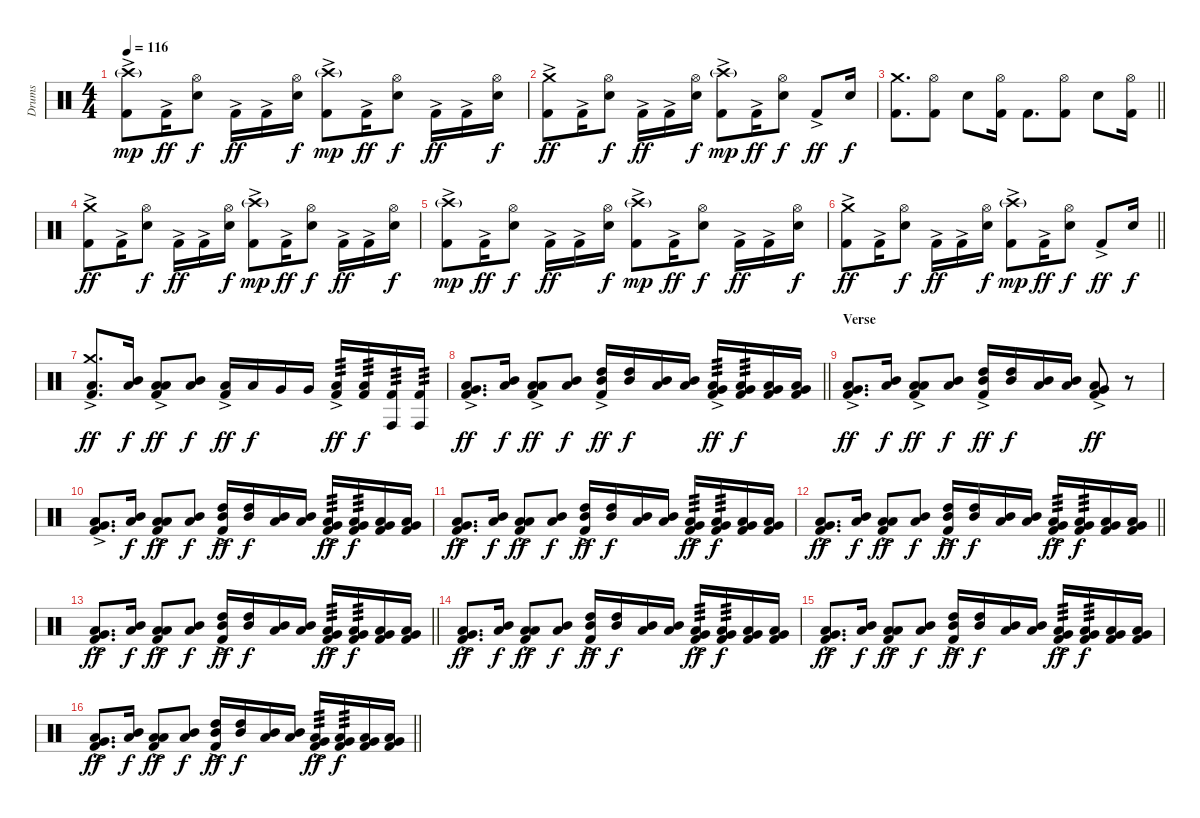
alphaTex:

\track ("Drums" "Drums") {instrument percussion}
\staff {score}
\articulation defaults
\ts (4 4)
\tempo 116
\clef neutral
\ks c
("Kick (hit) 2"{ac} "Crash high (hit)"{g}).8{dy mp} "Kick (hit) 2"{ac}.16{dy ff} ("Snare (hit) 2" "Hi-Hat (open)").8{dy f} "Kick (hit) 2"{ac}.16{dy ff} "Kick (hit) 2"{ac}.16 ("Snare (hit) 2" "Hi-Hat (open)").16{dy f} ("Kick (hit) 2"{ac} "Crash high (hit)"{g}).8{dy mp} "Kick (hit) 2"{ac}.16{dy ff} ("Snare (hit) 2" "Hi-Hat (open)").8{dy f} "Kick (hit) 2"{ac}.16{dy ff} "Kick (hit) 2"{ac}.16 ("Snare (hit) 2" "Hi-Hat (open)").16{dy f} |
("Kick (hit) 2"{ac} "Crash medium (hit)").8{dy ff} "Kick (hit) 2"{ac}.16 ("Snare (hit) 2" "Hi-Hat (open)").8{dy f} "Kick (hit) 2"{ac}.16{dy ff} "Kick (hit) 2"{ac}.16 ("Snare (hit) 2" "Hi-Hat (open)").16{dy f} ("Kick (hit) 2"{ac} "Crash high (hit)"{g}).8{dy mp} "Kick (hit) 2"{ac}.16{dy ff} ("Snare (hit) 2" "Hi-Hat (open)").8{dy f} "Kick (hit) 2"{ac}.8{dy ff} "Snare (hit) 2".16{dy f} |
\barLineRight lightlight
("Kick (hit) 2" "Crash medium (hit)").8{d} ("Kick (hit) 2" "Hi-Hat (open)").8 "Snare (hit) 2".8 ("Kick (hit) 2" "Hi-Hat (open)").16 "Kick (hit) 2".8{d} ("Kick (hit) 2" "Hi-Hat (open)").8 "Snare (hit) 2".8 ("Kick (hit) 2" "Hi-Hat (open)").16 |
\section ("" "")
("Kick (hit) 2"{ac} "Crash medium (hit)").8{dy ff} "Kick (hit) 2"{ac}.16 ("Snare (hit) 2" "Hi-Hat (open)").8{dy f} "Kick (hit) 2"{ac}.16{dy ff} "Kick (hit) 2"{ac}.16 ("Snare (hit) 2" "Hi-Hat (open)").16{dy f} ("Kick (hit) 2"{ac} "Crash high (hit)"{g}).8{dy mp} "Kick (hit) 2"{ac}.16{dy ff} ("Snare (hit) 2" "Hi-Hat (open)").8{dy f} "Kick (hit) 2"{ac}.16{dy ff} "Kick (hit) 2"{ac}.16 ("Snare (hit) 2" "Hi-Hat (open)").16{dy f} |
("Kick (hit) 2"{ac} "Crash high (hit)"{g}).8{dy mp} "Kick (hit) 2"{ac}.16{dy ff} ("Snare (hit) 2" "Hi-Hat (open)").8{dy f} "Kick (hit) 2"{ac}.16{dy ff} "Kick (hit) 2"{ac}.16 ("Snare (hit) 2" "Hi-Hat (open)").16{dy f} ("Kick (hit) 2"{ac} "Crash high (hit)"{g}).8{dy mp} "Kick (hit) 2"{ac}.16{dy ff} ("Snare (hit) 2" "Hi-Hat (open)").8{dy f} "Kick (hit) 2"{ac}.16{dy ff} "Kick (hit) 2"{ac}.16 ("Snare (hit) 2" "Hi-Hat (open)").16{dy f} |
\barLineRight lightlight
("Kick (hit) 2"{ac} "Crash medium (hit)").8{dy ff} "Kick (hit) 2"{ac}.16 ("Snare (hit) 2" "Hi-Hat (open)").8{dy f} "Kick (hit) 2"{ac}.16{dy ff} "Kick (hit) 2"{ac}.16 ("Snare (hit) 2" "Hi-Hat (open)").16{dy f} ("Kick (hit) 2"{ac} "Crash high (hit)"{g}).8{dy mp} "Kick (hit) 2"{ac}.16{dy ff} ("Snare (hit) 2" "Hi-Hat (open)").8{dy f} "Kick (hit) 2"{ac}.8{dy ff} "Snare (hit) 2".16{dy f} |
\section ("" "")
("Kick (hit) 2"{ac} "Low Floor Tom (hit)" "Crash medium (hit)").8{d dy ff} ("Mid Tom (hit)" "Low Floor Tom (hit)").16{dy f} ("Kick (hit) 2"{ac} "Low Tom (hit)" "Low Floor Tom (hit)").8{dy ff} ("Mid Tom (hit)" "Low Floor Tom (hit)").8{dy f} ("Kick (hit) 2"{ac} "Low Tom (hit)").16{dy ff} "Low Tom (hit)".16{dy f} "Very Low Tom (hit)".16 "Very Low Tom (hit)".16 ("Kick (hit) 2"{ac} "Low Floor Tom (hit)").16{tp 3 dy ff} ("Kick (hit) 2" "Low Floor Tom (hit)").16{tp 3 dy f} ("Kick (hit) 2" "Conga high (hit)").16{tp 3} ("Kick (hit) 2" "Conga high (hit)").16{tp 3} |
\barLineRight lightlight
("Kick (hit) 2"{ac} "Low Floor Tom (hit)" "Very Low Tom (hit)").8{d dy ff} ("Mid Tom (hit)" "Low Floor Tom (hit)").16{dy f} ("Kick (hit) 2"{ac} "Low Tom (hit)" "Low Floor Tom (hit)").8{dy ff} ("Mid Tom (hit)" "Low Floor Tom (hit)").8{dy f} ("Kick (hit) 2"{ac} "Mid Tom (hit)" "High Tom (hit)").16{dy ff} ("Mid Tom (hit)" "High Tom (hit)").16{dy f} ("Low Tom (hit)" "Mid Tom (hit)").16 ("Low Tom (hit)" "Mid Tom (hit)").16 ("Kick (hit) 2"{ac} "Very Low Tom (hit)" "Low Tom (hit)").16{tp 3 dy ff} ("Kick (hit) 2" "Very Low Tom (hit)" "Low Tom (hit)").16{tp 3 dy f} ("Kick (hit) 2" "Low Floor Tom (hit)" "Very Low Tom (hit)").16 ("Kick (hit) 2" "Low Floor Tom (hit)" "Very Low Tom (hit)").16 |
\section ("" "Verse")
("Kick (hit) 2"{ac} "Low Floor Tom (hit)" "Very Low Tom (hit)").8{d dy ff} ("Mid Tom (hit)" "Low Floor Tom (hit)").16{dy f} ("Kick (hit) 2"{ac} "Low Tom (hit)" "Low Floor Tom (hit)").8{dy ff} ("Mid Tom (hit)" "Low Floor Tom (hit)").8{dy f} ("Kick (hit) 2"{ac} "Mid Tom (hit)" "High Tom (hit)").16{dy ff} ("Mid Tom (hit)" "High Tom (hit)").16{dy f} ("Low Tom (hit)" "Mid Tom (hit)").16 ("Low Tom (hit)" "Mid Tom (hit)").16 ("Kick (hit) 2"{ac} "Low Floor Tom (hit)" "Very Low Tom (hit)").8{dy ff} r.8 |
("Kick (hit) 2"{ac} "Low Floor Tom (hit)" "Very Low Tom (hit)").8{d} ("Mid Tom (hit)" "Low Floor Tom (hit)").16{dy f} ("Kick (hit) 2"{ac} "Low Tom (hit)" "Low Floor Tom (hit)").8{dy ff} ("Mid Tom (hit)" "Low Floor Tom (hit)").8{dy f} ("Kick (hit) 2"{ac} "Mid Tom (hit)" "High Tom (hit)").16{dy ff} ("Mid Tom (hit)" "High Tom (hit)").16{dy f} ("Low Tom (hit)" "Mid Tom (hit)").16 ("Low Tom (hit)" "Mid Tom (hit)").16 ("Kick (hit) 2"{ac} "Very Low Tom (hit)" "Low Tom (hit)").16{tp 3 dy ff} ("Kick (hit) 2" "Very Low Tom (hit)" "Low Tom (hit)").16{tp 3 dy f} ("Kick (hit) 2" "Low Floor Tom (hit)" "Very Low Tom (hit)").16 ("Kick (hit) 2" "Low Floor Tom (hit)" "Very Low Tom (hit)").16 |
("Kick (hit) 2"{ac} "Low Floor Tom (hit)" "Very Low Tom (hit)").8{d dy ff} ("Mid Tom (hit)" "Low Floor Tom (hit)").16{dy f} ("Kick (hit) 2"{ac} "Low Tom (hit)" "Low Floor Tom (hit)").8{dy ff} ("Mid Tom (hit)" "Low Floor Tom (hit)").8{dy f} ("Kick (hit) 2"{ac} "Mid Tom (hit)" "High Tom (hit)").16{dy ff} ("Mid Tom (hit)" "High Tom (hit)").16{dy f} ("Low Tom (hit)" "Mid Tom (hit)").16 ("Low Tom (hit)" "Mid Tom (hit)").16 ("Kick (hit) 2"{ac} "Very Low Tom (hit)" "Low Tom (hit)").16{tp 3 dy ff} ("Kick (hit) 2" "Very Low Tom (hit)" "Low Tom (hit)").16{tp 3 dy f} ("Kick (hit) 2" "Low Floor Tom (hit)" "Very Low Tom (hit)").16 ("Kick (hit) 2" "Low Floor Tom (hit)" "Very Low Tom (hit)").16 |
\barLineRight lightlight
("Kick (hit) 2"{ac} "Low Floor Tom (hit)" "Very Low Tom (hit)").8{d dy ff} ("Mid Tom (hit)" "Low Floor Tom (hit)").16{dy f} ("Kick (hit) 2"{ac} "Low Tom (hit)" "Low Floor Tom (hit)").8{dy ff} ("Mid Tom (hit)" "Low Floor Tom (hit)").8{dy f} ("Kick (hit) 2"{ac} "Mid Tom (hit)" "High Tom (hit)").16{dy ff} ("Mid Tom (hit)" "High Tom (hit)").16{dy f} ("Low Tom (hit)" "Mid Tom (hit)").16 ("Low Tom (hit)" "Mid Tom (hit)").16 ("Kick (hit) 2"{ac} "Very Low Tom (hit)" "Low Tom (hit)").16{tp 3 dy ff} ("Kick (hit) 2" "Very Low Tom (hit)" "Low Tom (hit)").16{tp 3 dy f} ("Kick (hit) 2" "Low Floor Tom (hit)" "Very Low Tom (hit)").16 ("Kick (hit) 2" "Low Floor Tom (hit)" "Very Low Tom (hit)").16 |
\section ("" "")
\barLineRight lightlight
("Kick (hit) 2"{ac} "Low Floor Tom (hit)" "Very Low Tom (hit)").8{d dy ff} ("Mid Tom (hit)" "Low Floor Tom (hit)").16{dy f} ("Kick (hit) 2"{ac} "Low Tom (hit)" "Low Floor Tom (hit)").8{dy ff} ("Mid Tom (hit)" "Low Floor Tom (hit)").8{dy f} ("Kick (hit) 2"{ac} "Mid Tom (hit)" "High Tom (hit)").16{dy ff} ("Mid Tom (hit)" "High Tom (hit)").16{dy f} ("Low Tom (hit)" "Mid Tom (hit)").16 ("Low Tom (hit)" "Mid Tom (hit)").16 ("Kick (hit) 2"{ac} "Very Low Tom (hit)" "Low Tom (hit)").16{tp 3 dy ff} ("Kick (hit) 2" "Very Low Tom (hit)" "Low Tom (hit)").16{tp 3 dy f} ("Kick (hit) 2" "Low Floor Tom (hit)" "Very Low Tom (hit)").16 ("Kick (hit) 2" "Low Floor Tom (hit)" "Very Low Tom (hit)").16 |
("Kick (hit) 2"{ac} "Low Floor Tom (hit)" "Very Low Tom (hit)").8{d dy ff} ("Mid Tom (hit)" "Low Floor Tom (hit)").16{dy f} ("Kick (hit) 2"{ac} "Low Tom (hit)" "Low Floor Tom (hit)").8{dy ff} ("Mid Tom (hit)" "Low Floor Tom (hit)").8{dy f} ("Kick (hit) 2"{ac} "Mid Tom (hit)" "High Tom (hit)").16{dy ff} ("Mid Tom (hit)" "High Tom (hit)").16{dy f} ("Low Tom (hit)" "Mid Tom (hit)").16 ("Low Tom (hit)" "Mid Tom (hit)").16 ("Kick (hit) 2"{ac} "Very Low Tom (hit)" "Low Tom (hit)").16{tp 3 dy ff} ("Kick (hit) 2" "Very Low Tom (hit)" "Low Tom (hit)").16{tp 3 dy f} ("Kick (hit) 2" "Low Floor Tom (hit)" "Very Low Tom (hit)").16 ("Kick (hit) 2" "Low Floor Tom (hit)" "Very Low Tom (hit)").16 |
("Kick (hit) 2"{ac} "Low Floor Tom (hit)" "Very Low Tom (hit)").8{d dy ff} ("Mid Tom (hit)" "Low Floor Tom (hit)").16{dy f} ("Kick (hit) 2"{ac} "Low Tom (hit)" "Low Floor Tom (hit)").8{dy ff} ("Mid Tom (hit)" "Low Floor Tom (hit)").8{dy f} ("Kick (hit) 2"{ac} "Mid Tom (hit)" "High Tom (hit)").16{dy ff} ("Mid Tom (hit)" "High Tom (hit)").16{dy f} ("Low Tom (hit)" "Mid Tom (hit)").16 ("Low Tom (hit)" "Mid Tom (hit)").16 ("Kick (hit) 2"{ac} "Very Low Tom (hit)" "Low Tom (hit)").16{tp 3 dy ff} ("Kick (hit) 2" "Very Low Tom (hit)" "Low Tom (hit)").16{tp 3 dy f} ("Kick (hit) 2" "Low Floor Tom (hit)" "Very Low Tom (hit)").16 ("Kick (hit) 2" "Low Floor Tom (hit)" "Very Low Tom (hit)").16 |
\barLineRight lightlight
("Kick (hit) 2"{ac} "Low Floor Tom (hit)" "Very Low Tom (hit)").8{d dy ff} ("Mid Tom (hit)" "Low Floor Tom (hit)").16{dy f} ("Kick (hit) 2"{ac} "Low Tom (hit)" "Low Floor Tom (hit)").8{dy ff} ("Mid Tom (hit)" "Low Floor Tom (hit)").8{dy f} ("Kick (hit) 2"{ac} "Mid Tom (hit)" "High Tom (hit)").16{dy ff} ("Mid Tom (hit)" "High Tom (hit)").16{dy f} ("Low Tom (hit)" "Mid Tom (hit)").16 ("Low Tom (hit)" "Mid Tom (hit)").16 ("Kick (hit) 2"{ac} "Very Low Tom (hit)" "Low Tom (hit)").16{tp 3 dy ff} ("Kick (hit) 2" "Very Low Tom (hit)" "Low Tom (hit)").16{tp 3 dy f} ("Kick (hit) 2" "Low Floor Tom (hit)" "Very Low Tom (hit)").16 ("Kick (hit) 2" "Low Floor Tom (hit)" "Very Low Tom (hit)").16
